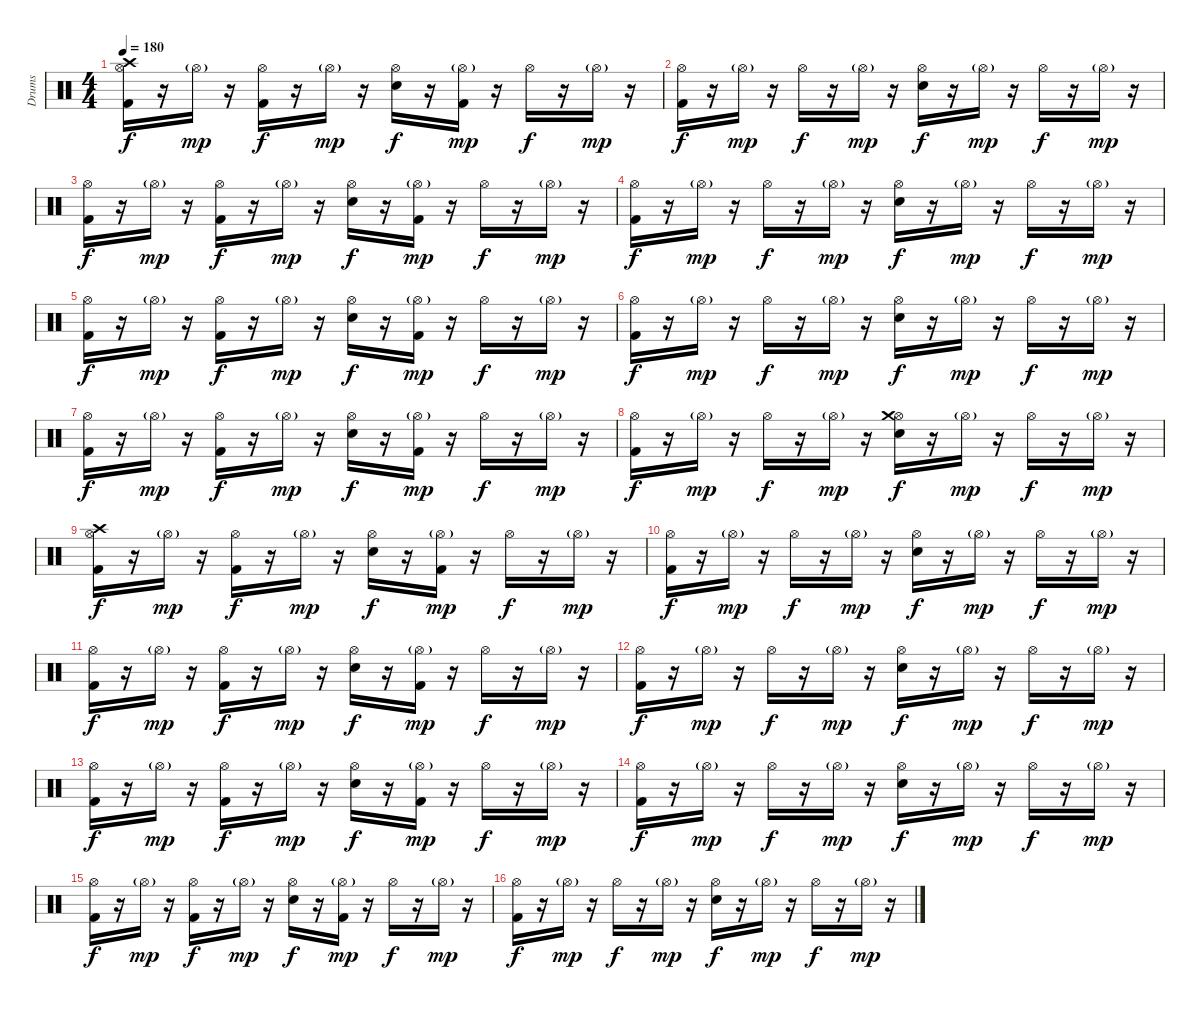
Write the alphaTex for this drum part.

\track ("Drums" "Drums") {instrument percussion}
\staff {score}
\articulation defaults
\ts (4 4)
\tempo 180
\clef neutral
\ks c
("Hi-Hat (open)" "Crash high (hit)" "Kick (hit) 2").16{dy f} r.16 "Hi-Hat (open)"{g}.16{dy mp} r.16 ("Hi-Hat (open)" "Kick (hit) 2").16{dy f} r.16 "Hi-Hat (open)"{g}.16{dy mp} r.16 ("Hi-Hat (open)" "Electric Snare (hit)").16{dy f} r.16 ("Hi-Hat (open)"{g} "Kick (hit) 2").16{dy mp} r.16 "Hi-Hat (open)".16{dy f} r.16 "Hi-Hat (open)"{g}.16{dy mp} r.16 |
("Hi-Hat (open)" "Kick (hit) 2").16{dy f} r.16 "Hi-Hat (open)"{g}.16{dy mp} r.16 "Hi-Hat (open)".16{dy f} r.16 "Hi-Hat (open)"{g}.16{dy mp} r.16 ("Hi-Hat (open)" "Electric Snare (hit)").16{dy f} r.16 "Hi-Hat (open)"{g}.16{dy mp} r.16 "Hi-Hat (open)".16{dy f} r.16 "Hi-Hat (open)"{g}.16{dy mp} r.16 |
("Hi-Hat (open)" "Kick (hit) 2").16{dy f} r.16 "Hi-Hat (open)"{g}.16{dy mp} r.16 ("Hi-Hat (open)" "Kick (hit) 2").16{dy f} r.16 "Hi-Hat (open)"{g}.16{dy mp} r.16 ("Hi-Hat (open)" "Electric Snare (hit)").16{dy f} r.16 ("Hi-Hat (open)"{g} "Kick (hit) 2").16{dy mp} r.16 "Hi-Hat (open)".16{dy f} r.16 "Hi-Hat (open)"{g}.16{dy mp} r.16 |
("Hi-Hat (open)" "Kick (hit) 2").16{dy f} r.16 "Hi-Hat (open)"{g}.16{dy mp} r.16 "Hi-Hat (open)".16{dy f} r.16 "Hi-Hat (open)"{g}.16{dy mp} r.16 ("Hi-Hat (open)" "Electric Snare (hit)").16{dy f} r.16 "Hi-Hat (open)"{g}.16{dy mp} r.16 "Hi-Hat (open)".16{dy f} r.16 "Hi-Hat (open)"{g}.16{dy mp} r.16 |
("Hi-Hat (open)" "Kick (hit) 2").16{dy f} r.16 "Hi-Hat (open)"{g}.16{dy mp} r.16 ("Hi-Hat (open)" "Kick (hit) 2").16{dy f} r.16 "Hi-Hat (open)"{g}.16{dy mp} r.16 ("Hi-Hat (open)" "Electric Snare (hit)").16{dy f} r.16 ("Hi-Hat (open)"{g} "Kick (hit) 2").16{dy mp} r.16 "Hi-Hat (open)".16{dy f} r.16 "Hi-Hat (open)"{g}.16{dy mp} r.16 |
("Hi-Hat (open)" "Kick (hit) 2").16{dy f} r.16 "Hi-Hat (open)"{g}.16{dy mp} r.16 "Hi-Hat (open)".16{dy f} r.16 "Hi-Hat (open)"{g}.16{dy mp} r.16 ("Hi-Hat (open)" "Electric Snare (hit)").16{dy f} r.16 "Hi-Hat (open)"{g}.16{dy mp} r.16 "Hi-Hat (open)".16{dy f} r.16 "Hi-Hat (open)"{g}.16{dy mp} r.16 |
("Hi-Hat (open)" "Kick (hit) 2").16{dy f} r.16 "Hi-Hat (open)"{g}.16{dy mp} r.16 ("Hi-Hat (open)" "Kick (hit) 2").16{dy f} r.16 "Hi-Hat (open)"{g}.16{dy mp} r.16 ("Hi-Hat (open)" "Electric Snare (hit)").16{dy f} r.16 ("Hi-Hat (open)"{g} "Kick (hit) 2").16{dy mp} r.16 "Hi-Hat (open)".16{dy f} r.16 "Hi-Hat (open)"{g}.16{dy mp} r.16 |
("Hi-Hat (open)" "Kick (hit) 2").16{dy f} r.16 "Hi-Hat (open)"{g}.16{dy mp} r.16 "Hi-Hat (open)".16{dy f} r.16 "Hi-Hat (open)"{g}.16{dy mp} r.16 ("Hi-Hat (open)" "Electric Snare (hit)" "Crash medium (hit)").16{dy f} r.16 "Hi-Hat (open)"{g}.16{dy mp} r.16 "Hi-Hat (open)".16{dy f} r.16 "Hi-Hat (open)"{g}.16{dy mp} r.16 |
("Hi-Hat (open)" "Kick (hit) 2" "Crash high (hit)").16{dy f} r.16 "Hi-Hat (open)"{g}.16{dy mp} r.16 ("Hi-Hat (open)" "Kick (hit) 2").16{dy f} r.16 "Hi-Hat (open)"{g}.16{dy mp} r.16 ("Hi-Hat (open)" "Electric Snare (hit)").16{dy f} r.16 ("Hi-Hat (open)"{g} "Kick (hit) 2").16{dy mp} r.16 "Hi-Hat (open)".16{dy f} r.16 "Hi-Hat (open)"{g}.16{dy mp} r.16 |
("Hi-Hat (open)" "Kick (hit) 2").16{dy f} r.16 "Hi-Hat (open)"{g}.16{dy mp} r.16 "Hi-Hat (open)".16{dy f} r.16 "Hi-Hat (open)"{g}.16{dy mp} r.16 ("Hi-Hat (open)" "Electric Snare (hit)").16{dy f} r.16 "Hi-Hat (open)"{g}.16{dy mp} r.16 "Hi-Hat (open)".16{dy f} r.16 "Hi-Hat (open)"{g}.16{dy mp} r.16 |
("Hi-Hat (open)" "Kick (hit) 2").16{dy f} r.16 "Hi-Hat (open)"{g}.16{dy mp} r.16 ("Hi-Hat (open)" "Kick (hit) 2").16{dy f} r.16 "Hi-Hat (open)"{g}.16{dy mp} r.16 ("Hi-Hat (open)" "Electric Snare (hit)").16{dy f} r.16 ("Hi-Hat (open)"{g} "Kick (hit) 2").16{dy mp} r.16 "Hi-Hat (open)".16{dy f} r.16 "Hi-Hat (open)"{g}.16{dy mp} r.16 |
("Hi-Hat (open)" "Kick (hit) 2").16{dy f} r.16 "Hi-Hat (open)"{g}.16{dy mp} r.16 "Hi-Hat (open)".16{dy f} r.16 "Hi-Hat (open)"{g}.16{dy mp} r.16 ("Hi-Hat (open)" "Electric Snare (hit)").16{dy f} r.16 "Hi-Hat (open)"{g}.16{dy mp} r.16 "Hi-Hat (open)".16{dy f} r.16 "Hi-Hat (open)"{g}.16{dy mp} r.16 |
("Hi-Hat (open)" "Kick (hit) 2").16{dy f} r.16 "Hi-Hat (open)"{g}.16{dy mp} r.16 ("Hi-Hat (open)" "Kick (hit) 2").16{dy f} r.16 "Hi-Hat (open)"{g}.16{dy mp} r.16 ("Hi-Hat (open)" "Electric Snare (hit)").16{dy f} r.16 ("Hi-Hat (open)"{g} "Kick (hit) 2").16{dy mp} r.16 "Hi-Hat (open)".16{dy f} r.16 "Hi-Hat (open)"{g}.16{dy mp} r.16 |
("Hi-Hat (open)" "Kick (hit) 2").16{dy f} r.16 "Hi-Hat (open)"{g}.16{dy mp} r.16 "Hi-Hat (open)".16{dy f} r.16 "Hi-Hat (open)"{g}.16{dy mp} r.16 ("Hi-Hat (open)" "Electric Snare (hit)").16{dy f} r.16 "Hi-Hat (open)"{g}.16{dy mp} r.16 "Hi-Hat (open)".16{dy f} r.16 "Hi-Hat (open)"{g}.16{dy mp} r.16 |
("Hi-Hat (open)" "Kick (hit) 2").16{dy f} r.16 "Hi-Hat (open)"{g}.16{dy mp} r.16 ("Hi-Hat (open)" "Kick (hit) 2").16{dy f} r.16 "Hi-Hat (open)"{g}.16{dy mp} r.16 ("Hi-Hat (open)" "Electric Snare (hit)").16{dy f} r.16 ("Hi-Hat (open)"{g} "Kick (hit) 2").16{dy mp} r.16 "Hi-Hat (open)".16{dy f} r.16 "Hi-Hat (open)"{g}.16{dy mp} r.16 |
("Hi-Hat (open)" "Kick (hit) 2").16{dy f} r.16 "Hi-Hat (open)"{g}.16{dy mp} r.16 "Hi-Hat (open)".16{dy f} r.16 "Hi-Hat (open)"{g}.16{dy mp} r.16 ("Hi-Hat (open)" "Electric Snare (hit)").16{dy f} r.16 "Hi-Hat (open)"{g}.16{dy mp} r.16 "Hi-Hat (open)".16{dy f} r.16 "Hi-Hat (open)"{g}.16{dy mp} r.16
